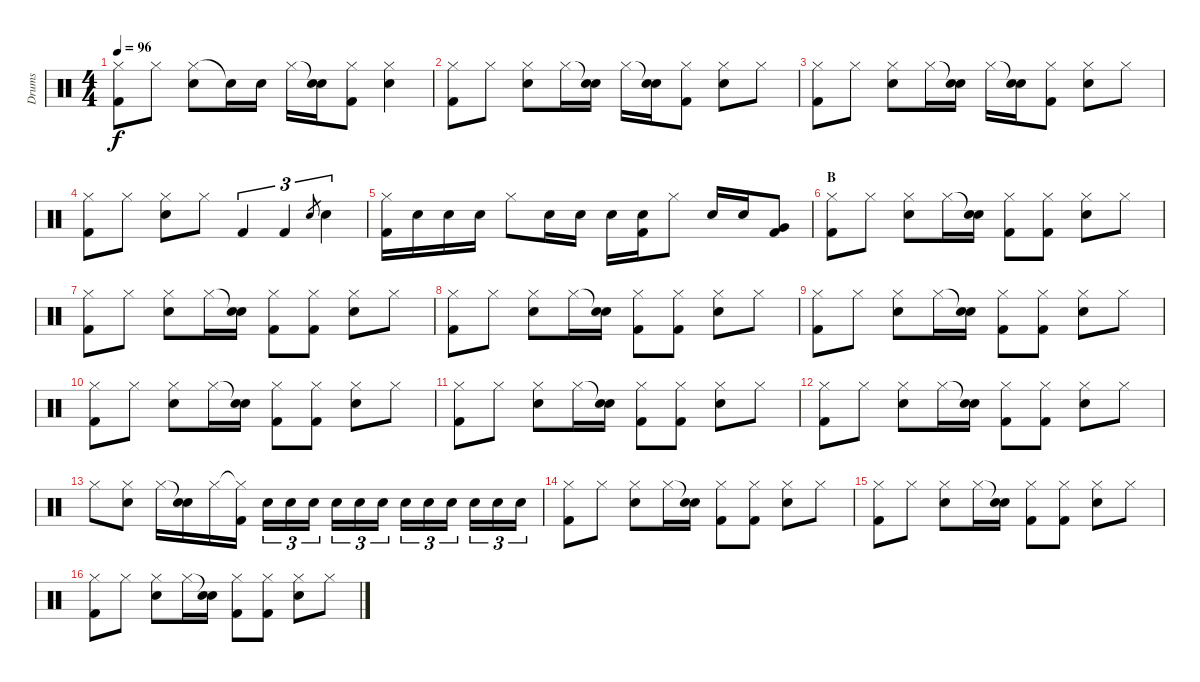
\track ("Drums" "Drums") {instrument percussion}
\staff {score}
\articulation defaults
\ts (4 4)
\tempo 96
\clef neutral
\ks c
("Hi-Hat (closed)" "Kick (hit) 2").8{dy f} "Hi-Hat (closed)".8 ("Hi-Hat (closed)" "Snare (hit) 2").8 "Snare (hit)"{t}.16 "Snare (hit) 2".16 "Hi-Hat (closed)".16 ("Snare (hit)"{t} "Snare (hit) 2").16 ("Hi-Hat (closed)" "Kick (hit) 2").8 ("Hi-Hat (closed)" "Snare (hit) 2").4 |
("Hi-Hat (closed)" "Kick (hit) 2").8 "Hi-Hat (closed)".8 ("Hi-Hat (closed)" "Snare (hit) 2").8 "Hi-Hat (closed)".16 ("Snare (hit)"{t} "Snare (hit) 2").16 "Hi-Hat (closed)".16 ("Snare (hit)"{t} "Snare (hit) 2").16 ("Hi-Hat (closed)" "Kick (hit) 2").8 ("Hi-Hat (closed)" "Snare (hit) 2").8 "Hi-Hat (closed)".8 |
("Hi-Hat (closed)" "Kick (hit) 2").8 "Hi-Hat (closed)".8 ("Hi-Hat (closed)" "Snare (hit) 2").8 "Hi-Hat (closed)".16 ("Snare (hit)"{t} "Snare (hit) 2").16 "Hi-Hat (closed)".16 ("Snare (hit)"{t} "Snare (hit) 2").16 ("Hi-Hat (closed)" "Kick (hit) 2").8 ("Hi-Hat (closed)" "Snare (hit) 2").8 "Hi-Hat (closed)".8 |
("Hi-Hat (closed)" "Kick (hit) 2").8 "Hi-Hat (closed)".8 ("Hi-Hat (closed)" "Snare (hit) 2").8 "Hi-Hat (closed)".8 "Kick (hit) 2".4{tu (3 2)} "Kick (hit) 2".4{tu (3 2)} "Snare (hit) 2".8{gr} "Snare (hit) 2".4{tu (3 2)} |
("Hi-Hat (closed)" "Kick (hit) 2").16 "Snare (hit) 2".16 "Snare (hit) 2".16 "Snare (hit) 2".16 "Hi-Hat (closed)".8 "Snare (hit) 2".16 "Snare (hit) 2".16 "Snare (hit) 2".16 ("Snare (hit) 2" "Kick (hit) 2").16 "Hi-Hat (closed)".8 "Snare (hit) 2".16 "Snare (hit) 2".16 ("Very Low Tom (hit)" "Kick (hit) 2").8 |
\section ("" "B")
("Hi-Hat (closed)" "Kick (hit) 2").8 "Hi-Hat (closed)".8 ("Hi-Hat (closed)" "Snare (hit) 2").8 "Hi-Hat (closed)".16 ("Snare (hit)"{t} "Snare (hit) 2").16 ("Hi-Hat (closed)" "Kick (hit) 2").8 ("Hi-Hat (closed)" "Kick (hit) 2").8 ("Hi-Hat (closed)" "Snare (hit) 2").8 "Hi-Hat (closed)".8 |
("Hi-Hat (closed)" "Kick (hit) 2").8 "Hi-Hat (closed)".8 ("Hi-Hat (closed)" "Snare (hit) 2").8 "Hi-Hat (closed)".16 ("Snare (hit)"{t} "Snare (hit) 2").16 ("Hi-Hat (closed)" "Kick (hit) 2").8 ("Hi-Hat (closed)" "Kick (hit) 2").8 ("Hi-Hat (closed)" "Snare (hit) 2").8 "Hi-Hat (closed)".8 |
("Hi-Hat (closed)" "Kick (hit) 2").8 "Hi-Hat (closed)".8 ("Hi-Hat (closed)" "Snare (hit) 2").8 "Hi-Hat (closed)".16 ("Snare (hit)"{t} "Snare (hit) 2").16 ("Hi-Hat (closed)" "Kick (hit) 2").8 ("Hi-Hat (closed)" "Kick (hit) 2").8 ("Hi-Hat (closed)" "Snare (hit) 2").8 "Hi-Hat (closed)".8 |
("Hi-Hat (closed)" "Kick (hit) 2").8 "Hi-Hat (closed)".8 ("Hi-Hat (closed)" "Snare (hit) 2").8 "Hi-Hat (closed)".16 ("Snare (hit)"{t} "Snare (hit) 2").16 ("Hi-Hat (closed)" "Kick (hit) 2").8 ("Hi-Hat (closed)" "Kick (hit) 2").8 ("Hi-Hat (closed)" "Snare (hit) 2").8 "Hi-Hat (closed)".8 |
("Hi-Hat (closed)" "Kick (hit) 2").8 "Hi-Hat (closed)".8 ("Hi-Hat (closed)" "Snare (hit) 2").8 "Hi-Hat (closed)".16 ("Snare (hit)"{t} "Snare (hit) 2").16 ("Hi-Hat (closed)" "Kick (hit) 2").8 ("Hi-Hat (closed)" "Kick (hit) 2").8 ("Hi-Hat (closed)" "Snare (hit) 2").8 "Hi-Hat (closed)".8 |
("Hi-Hat (closed)" "Kick (hit) 2").8 "Hi-Hat (closed)".8 ("Hi-Hat (closed)" "Snare (hit) 2").8 "Hi-Hat (closed)".16 ("Snare (hit)"{t} "Snare (hit) 2").16 ("Hi-Hat (closed)" "Kick (hit) 2").8 ("Hi-Hat (closed)" "Kick (hit) 2").8 ("Hi-Hat (closed)" "Snare (hit) 2").8 "Hi-Hat (closed)".8 |
("Hi-Hat (closed)" "Kick (hit) 2").8 "Hi-Hat (closed)".8 ("Hi-Hat (closed)" "Snare (hit) 2").8 "Hi-Hat (closed)".16 ("Snare (hit)"{t} "Snare (hit) 2").16 ("Hi-Hat (closed)" "Kick (hit) 2").8 ("Hi-Hat (closed)" "Kick (hit) 2").8 ("Hi-Hat (closed)" "Snare (hit) 2").8 "Hi-Hat (closed)".8 |
"Hi-Hat (closed)".8 ("Hi-Hat (closed)" "Snare (hit) 2").8 "Hi-Hat (closed)".16 ("Snare (hit)"{t} "Snare (hit) 2").16 "Hi-Hat (closed)".16 ("Hi-Hat (closed)"{t} "Kick (hit) 2").16 "Snare (hit) 2".16{tu (3 2)} "Snare (hit) 2".16{tu (3 2)} "Snare (hit) 2".16{tu (3 2)} "Snare (hit) 2".16{tu (3 2)} "Snare (hit) 2".16{tu (3 2)} "Snare (hit) 2".16{tu (3 2)} "Snare (hit) 2".16{tu (3 2)} "Snare (hit) 2".16{tu (3 2)} "Snare (hit) 2".16{tu (3 2)} "Snare (hit) 2".16{tu (3 2)} "Snare (hit) 2".16{tu (3 2)} "Snare (hit) 2".16{tu (3 2)} |
("Hi-Hat (closed)" "Kick (hit) 2").8 "Hi-Hat (closed)".8 ("Hi-Hat (closed)" "Snare (hit) 2").8 "Hi-Hat (closed)".16 ("Snare (hit)"{t} "Snare (hit) 2").16 ("Hi-Hat (closed)" "Kick (hit) 2").8 ("Hi-Hat (closed)" "Kick (hit) 2").8 ("Hi-Hat (closed)" "Snare (hit) 2").8 "Hi-Hat (closed)".8 |
("Hi-Hat (closed)" "Kick (hit) 2").8 "Hi-Hat (closed)".8 ("Hi-Hat (closed)" "Snare (hit) 2").8 "Hi-Hat (closed)".16 ("Snare (hit)"{t} "Snare (hit) 2").16 ("Hi-Hat (closed)" "Kick (hit) 2").8 ("Hi-Hat (closed)" "Kick (hit) 2").8 ("Hi-Hat (closed)" "Snare (hit) 2").8 "Hi-Hat (closed)".8 |
("Hi-Hat (closed)" "Kick (hit) 2").8 "Hi-Hat (closed)".8 ("Hi-Hat (closed)" "Snare (hit) 2").8 "Hi-Hat (closed)".16 ("Snare (hit)"{t} "Snare (hit) 2").16 ("Hi-Hat (closed)" "Kick (hit) 2").8 ("Hi-Hat (closed)" "Kick (hit) 2").8 ("Hi-Hat (closed)" "Snare (hit) 2").8 "Hi-Hat (closed)".8
